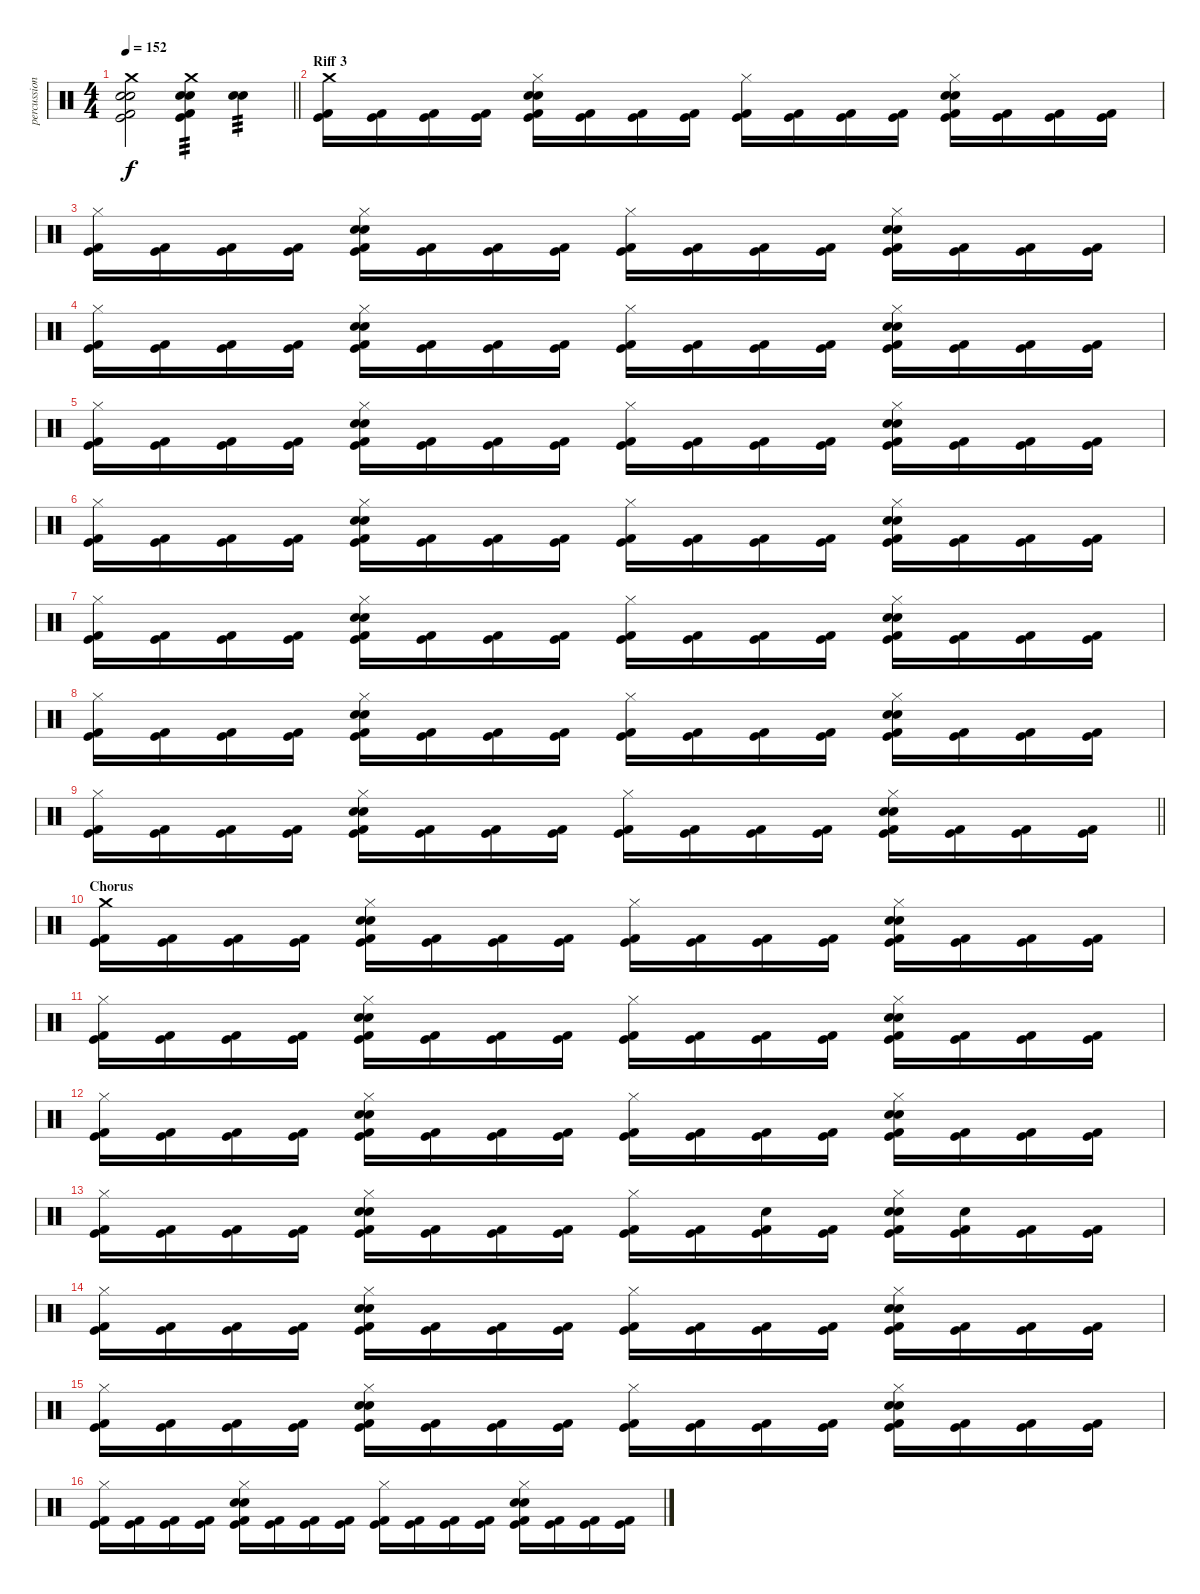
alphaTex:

\track ("percussion" "percussion") {instrument percussion}
\staff {score}
\articulation defaults
\ts (4 4)
\tempo 152
\clef neutral
\barLineRight lightlight
\ks c
("Crash medium (hit)" "Electric Snare (hit)" "Snare (hit) 2" "Kick (hit) 2" "Kick (hit)").2{dy f} ("Crash medium (hit)" "Electric Snare (hit)" "Snare (hit) 2" "Kick (hit)" "Kick (hit) 2").4{tp 3} ("Electric Snare (hit)" "Snare (hit) 2").4{tp 3} |
\section ("" "Riff 3")
("Crash medium (hit)" "Kick (hit) 2" "Kick (hit)").16 ("Kick (hit) 2" "Kick (hit)").16 ("Kick (hit) 2" "Kick (hit)").16 ("Kick (hit) 2" "Kick (hit)").16 ("Hi-Hat (closed)" "Electric Snare (hit)" "Snare (hit) 2" "Kick (hit) 2" "Kick (hit)").16 ("Kick (hit) 2" "Kick (hit)").16 ("Kick (hit) 2" "Kick (hit)").16 ("Kick (hit) 2" "Kick (hit)").16 ("Hi-Hat (closed)" "Kick (hit) 2" "Kick (hit)").16 ("Kick (hit) 2" "Kick (hit)").16 ("Kick (hit) 2" "Kick (hit)").16 ("Kick (hit) 2" "Kick (hit)").16 ("Hi-Hat (closed)" "Electric Snare (hit)" "Snare (hit) 2" "Kick (hit) 2" "Kick (hit)").16 ("Kick (hit) 2" "Kick (hit)").16 ("Kick (hit) 2" "Kick (hit)").16 ("Kick (hit) 2" "Kick (hit)").16 |
("Hi-Hat (closed)" "Kick (hit) 2" "Kick (hit)").16 ("Kick (hit) 2" "Kick (hit)").16 ("Kick (hit) 2" "Kick (hit)").16 ("Kick (hit) 2" "Kick (hit)").16 ("Hi-Hat (closed)" "Electric Snare (hit)" "Snare (hit) 2" "Kick (hit) 2" "Kick (hit)").16 ("Kick (hit) 2" "Kick (hit)").16 ("Kick (hit) 2" "Kick (hit)").16 ("Kick (hit) 2" "Kick (hit)").16 ("Hi-Hat (closed)" "Kick (hit) 2" "Kick (hit)").16 ("Kick (hit) 2" "Kick (hit)").16 ("Kick (hit) 2" "Kick (hit)").16 ("Kick (hit) 2" "Kick (hit)").16 ("Hi-Hat (closed)" "Electric Snare (hit)" "Snare (hit) 2" "Kick (hit) 2" "Kick (hit)").16 ("Kick (hit) 2" "Kick (hit)").16 ("Kick (hit) 2" "Kick (hit)").16 ("Kick (hit) 2" "Kick (hit)").16 |
("Hi-Hat (closed)" "Kick (hit) 2" "Kick (hit)").16 ("Kick (hit) 2" "Kick (hit)").16 ("Kick (hit) 2" "Kick (hit)").16 ("Kick (hit) 2" "Kick (hit)").16 ("Hi-Hat (closed)" "Electric Snare (hit)" "Snare (hit) 2" "Kick (hit) 2" "Kick (hit)").16 ("Kick (hit) 2" "Kick (hit)").16 ("Kick (hit) 2" "Kick (hit)").16 ("Kick (hit) 2" "Kick (hit)").16 ("Hi-Hat (closed)" "Kick (hit) 2" "Kick (hit)").16 ("Kick (hit) 2" "Kick (hit)").16 ("Kick (hit) 2" "Kick (hit)").16 ("Kick (hit) 2" "Kick (hit)").16 ("Hi-Hat (closed)" "Electric Snare (hit)" "Snare (hit) 2" "Kick (hit) 2" "Kick (hit)").16 ("Kick (hit) 2" "Kick (hit)").16 ("Kick (hit) 2" "Kick (hit)").16 ("Kick (hit) 2" "Kick (hit)").16 |
("Hi-Hat (closed)" "Kick (hit) 2" "Kick (hit)").16 ("Kick (hit) 2" "Kick (hit)").16 ("Kick (hit) 2" "Kick (hit)").16 ("Kick (hit) 2" "Kick (hit)").16 ("Hi-Hat (closed)" "Electric Snare (hit)" "Snare (hit) 2" "Kick (hit) 2" "Kick (hit)").16 ("Kick (hit) 2" "Kick (hit)").16 ("Kick (hit) 2" "Kick (hit)").16 ("Kick (hit) 2" "Kick (hit)").16 ("Hi-Hat (closed)" "Kick (hit) 2" "Kick (hit)").16 ("Kick (hit) 2" "Kick (hit)").16 ("Kick (hit) 2" "Kick (hit)").16 ("Kick (hit) 2" "Kick (hit)").16 ("Hi-Hat (closed)" "Electric Snare (hit)" "Snare (hit) 2" "Kick (hit) 2" "Kick (hit)").16 ("Kick (hit) 2" "Kick (hit)").16 ("Kick (hit) 2" "Kick (hit)").16 ("Kick (hit) 2" "Kick (hit)").16 |
("Hi-Hat (closed)" "Kick (hit) 2" "Kick (hit)").16 ("Kick (hit) 2" "Kick (hit)").16 ("Kick (hit) 2" "Kick (hit)").16 ("Kick (hit) 2" "Kick (hit)").16 ("Hi-Hat (closed)" "Electric Snare (hit)" "Snare (hit) 2" "Kick (hit) 2" "Kick (hit)").16 ("Kick (hit) 2" "Kick (hit)").16 ("Kick (hit) 2" "Kick (hit)").16 ("Kick (hit) 2" "Kick (hit)").16 ("Hi-Hat (closed)" "Kick (hit) 2" "Kick (hit)").16 ("Kick (hit) 2" "Kick (hit)").16 ("Kick (hit) 2" "Kick (hit)").16 ("Kick (hit) 2" "Kick (hit)").16 ("Hi-Hat (closed)" "Electric Snare (hit)" "Snare (hit) 2" "Kick (hit) 2" "Kick (hit)").16 ("Kick (hit) 2" "Kick (hit)").16 ("Kick (hit) 2" "Kick (hit)").16 ("Kick (hit) 2" "Kick (hit)").16 |
("Hi-Hat (closed)" "Kick (hit) 2" "Kick (hit)").16 ("Kick (hit) 2" "Kick (hit)").16 ("Kick (hit) 2" "Kick (hit)").16 ("Kick (hit) 2" "Kick (hit)").16 ("Hi-Hat (closed)" "Electric Snare (hit)" "Snare (hit) 2" "Kick (hit) 2" "Kick (hit)").16 ("Kick (hit) 2" "Kick (hit)").16 ("Kick (hit) 2" "Kick (hit)").16 ("Kick (hit) 2" "Kick (hit)").16 ("Hi-Hat (closed)" "Kick (hit) 2" "Kick (hit)").16 ("Kick (hit) 2" "Kick (hit)").16 ("Kick (hit) 2" "Kick (hit)").16 ("Kick (hit) 2" "Kick (hit)").16 ("Hi-Hat (closed)" "Electric Snare (hit)" "Snare (hit) 2" "Kick (hit) 2" "Kick (hit)").16 ("Kick (hit) 2" "Kick (hit)").16 ("Kick (hit) 2" "Kick (hit)").16 ("Kick (hit) 2" "Kick (hit)").16 |
("Hi-Hat (closed)" "Kick (hit) 2" "Kick (hit)").16 ("Kick (hit) 2" "Kick (hit)").16 ("Kick (hit) 2" "Kick (hit)").16 ("Kick (hit) 2" "Kick (hit)").16 ("Hi-Hat (closed)" "Electric Snare (hit)" "Snare (hit) 2" "Kick (hit) 2" "Kick (hit)").16 ("Kick (hit) 2" "Kick (hit)").16 ("Kick (hit) 2" "Kick (hit)").16 ("Kick (hit) 2" "Kick (hit)").16 ("Hi-Hat (closed)" "Kick (hit) 2" "Kick (hit)").16 ("Kick (hit) 2" "Kick (hit)").16 ("Kick (hit) 2" "Kick (hit)").16 ("Kick (hit) 2" "Kick (hit)").16 ("Hi-Hat (closed)" "Electric Snare (hit)" "Snare (hit) 2" "Kick (hit) 2" "Kick (hit)").16 ("Kick (hit) 2" "Kick (hit)").16 ("Kick (hit) 2" "Kick (hit)").16 ("Kick (hit) 2" "Kick (hit)").16 |
\barLineRight lightlight
("Hi-Hat (closed)" "Kick (hit) 2" "Kick (hit)").16 ("Kick (hit) 2" "Kick (hit)").16 ("Kick (hit) 2" "Kick (hit)").16 ("Kick (hit) 2" "Kick (hit)").16 ("Hi-Hat (closed)" "Electric Snare (hit)" "Snare (hit) 2" "Kick (hit) 2" "Kick (hit)").16 ("Kick (hit) 2" "Kick (hit)").16 ("Kick (hit) 2" "Kick (hit)").16 ("Kick (hit) 2" "Kick (hit)").16 ("Hi-Hat (closed)" "Kick (hit) 2" "Kick (hit)").16 ("Kick (hit) 2" "Kick (hit)").16 ("Kick (hit) 2" "Kick (hit)").16 ("Kick (hit) 2" "Kick (hit)").16 ("Hi-Hat (closed)" "Electric Snare (hit)" "Snare (hit) 2" "Kick (hit) 2" "Kick (hit)").16 ("Kick (hit) 2" "Kick (hit)").16 ("Kick (hit) 2" "Kick (hit)").16 ("Kick (hit) 2" "Kick (hit)").16 |
\section ("" "Chorus")
("Crash medium (hit)" "Kick (hit) 2" "Kick (hit)").16 ("Kick (hit) 2" "Kick (hit)").16 ("Kick (hit) 2" "Kick (hit)").16 ("Kick (hit) 2" "Kick (hit)").16 ("Hi-Hat (closed)" "Electric Snare (hit)" "Snare (hit) 2" "Kick (hit) 2" "Kick (hit)").16 ("Kick (hit) 2" "Kick (hit)").16 ("Kick (hit) 2" "Kick (hit)").16 ("Kick (hit) 2" "Kick (hit)").16 ("Hi-Hat (closed)" "Kick (hit) 2" "Kick (hit)").16 ("Kick (hit) 2" "Kick (hit)").16 ("Kick (hit) 2" "Kick (hit)").16 ("Kick (hit) 2" "Kick (hit)").16 ("Hi-Hat (closed)" "Electric Snare (hit)" "Snare (hit) 2" "Kick (hit) 2" "Kick (hit)").16 ("Kick (hit) 2" "Kick (hit)").16 ("Kick (hit) 2" "Kick (hit)").16 ("Kick (hit) 2" "Kick (hit)").16 |
("Hi-Hat (closed)" "Kick (hit) 2" "Kick (hit)").16 ("Kick (hit) 2" "Kick (hit)").16 ("Kick (hit) 2" "Kick (hit)").16 ("Kick (hit) 2" "Kick (hit)").16 ("Hi-Hat (closed)" "Electric Snare (hit)" "Snare (hit) 2" "Kick (hit) 2" "Kick (hit)").16 ("Kick (hit) 2" "Kick (hit)").16 ("Kick (hit) 2" "Kick (hit)").16 ("Kick (hit) 2" "Kick (hit)").16 ("Hi-Hat (closed)" "Kick (hit) 2" "Kick (hit)").16 ("Kick (hit) 2" "Kick (hit)").16 ("Kick (hit) 2" "Kick (hit)").16 ("Kick (hit) 2" "Kick (hit)").16 ("Hi-Hat (closed)" "Electric Snare (hit)" "Snare (hit) 2" "Kick (hit) 2" "Kick (hit)").16 ("Kick (hit) 2" "Kick (hit)").16 ("Kick (hit) 2" "Kick (hit)").16 ("Kick (hit) 2" "Kick (hit)").16 |
("Hi-Hat (closed)" "Kick (hit) 2" "Kick (hit)").16 ("Kick (hit) 2" "Kick (hit)").16 ("Kick (hit) 2" "Kick (hit)").16 ("Kick (hit) 2" "Kick (hit)").16 ("Hi-Hat (closed)" "Electric Snare (hit)" "Snare (hit) 2" "Kick (hit) 2" "Kick (hit)").16 ("Kick (hit) 2" "Kick (hit)").16 ("Kick (hit) 2" "Kick (hit)").16 ("Kick (hit) 2" "Kick (hit)").16 ("Hi-Hat (closed)" "Kick (hit) 2" "Kick (hit)").16 ("Kick (hit) 2" "Kick (hit)").16 ("Kick (hit) 2" "Kick (hit)").16 ("Kick (hit) 2" "Kick (hit)").16 ("Hi-Hat (closed)" "Electric Snare (hit)" "Snare (hit) 2" "Kick (hit) 2" "Kick (hit)").16 ("Kick (hit) 2" "Kick (hit)").16 ("Kick (hit) 2" "Kick (hit)").16 ("Kick (hit) 2" "Kick (hit)").16 |
("Hi-Hat (closed)" "Kick (hit) 2" "Kick (hit)").16 ("Kick (hit) 2" "Kick (hit)").16 ("Kick (hit) 2" "Kick (hit)").16 ("Kick (hit) 2" "Kick (hit)").16 ("Hi-Hat (closed)" "Electric Snare (hit)" "Snare (hit) 2" "Kick (hit) 2" "Kick (hit)").16 ("Kick (hit) 2" "Kick (hit)").16 ("Kick (hit) 2" "Kick (hit)").16 ("Kick (hit) 2" "Kick (hit)").16 ("Hi-Hat (closed)" "Kick (hit) 2" "Kick (hit)").16 ("Kick (hit) 2" "Kick (hit)").16 ("Electric Snare (hit)" "Kick (hit) 2" "Kick (hit)").16 ("Kick (hit) 2" "Kick (hit)").16 ("Hi-Hat (closed)" "Electric Snare (hit)" "Snare (hit) 2" "Kick (hit) 2" "Kick (hit)").16 ("Electric Snare (hit)" "Kick (hit) 2" "Kick (hit)").16 ("Kick (hit) 2" "Kick (hit)").16 ("Kick (hit) 2" "Kick (hit)").16 |
("Hi-Hat (closed)" "Kick (hit) 2" "Kick (hit)").16 ("Kick (hit) 2" "Kick (hit)").16 ("Kick (hit) 2" "Kick (hit)").16 ("Kick (hit) 2" "Kick (hit)").16 ("Hi-Hat (closed)" "Electric Snare (hit)" "Snare (hit) 2" "Kick (hit) 2" "Kick (hit)").16 ("Kick (hit) 2" "Kick (hit)").16 ("Kick (hit) 2" "Kick (hit)").16 ("Kick (hit) 2" "Kick (hit)").16 ("Hi-Hat (closed)" "Kick (hit) 2" "Kick (hit)").16 ("Kick (hit) 2" "Kick (hit)").16 ("Kick (hit) 2" "Kick (hit)").16 ("Kick (hit) 2" "Kick (hit)").16 ("Hi-Hat (closed)" "Electric Snare (hit)" "Snare (hit) 2" "Kick (hit) 2" "Kick (hit)").16 ("Kick (hit) 2" "Kick (hit)").16 ("Kick (hit) 2" "Kick (hit)").16 ("Kick (hit) 2" "Kick (hit)").16 |
("Hi-Hat (closed)" "Kick (hit) 2" "Kick (hit)").16 ("Kick (hit) 2" "Kick (hit)").16 ("Kick (hit) 2" "Kick (hit)").16 ("Kick (hit) 2" "Kick (hit)").16 ("Hi-Hat (closed)" "Electric Snare (hit)" "Snare (hit) 2" "Kick (hit) 2" "Kick (hit)").16 ("Kick (hit) 2" "Kick (hit)").16 ("Kick (hit) 2" "Kick (hit)").16 ("Kick (hit) 2" "Kick (hit)").16 ("Hi-Hat (closed)" "Kick (hit) 2" "Kick (hit)").16 ("Kick (hit) 2" "Kick (hit)").16 ("Kick (hit) 2" "Kick (hit)").16 ("Kick (hit) 2" "Kick (hit)").16 ("Hi-Hat (closed)" "Electric Snare (hit)" "Snare (hit) 2" "Kick (hit) 2" "Kick (hit)").16 ("Kick (hit) 2" "Kick (hit)").16 ("Kick (hit) 2" "Kick (hit)").16 ("Kick (hit) 2" "Kick (hit)").16 |
("Hi-Hat (closed)" "Kick (hit) 2" "Kick (hit)").16 ("Kick (hit) 2" "Kick (hit)").16 ("Kick (hit) 2" "Kick (hit)").16 ("Kick (hit) 2" "Kick (hit)").16 ("Hi-Hat (closed)" "Electric Snare (hit)" "Snare (hit) 2" "Kick (hit) 2" "Kick (hit)").16 ("Kick (hit) 2" "Kick (hit)").16 ("Kick (hit) 2" "Kick (hit)").16 ("Kick (hit) 2" "Kick (hit)").16 ("Hi-Hat (closed)" "Kick (hit) 2" "Kick (hit)").16 ("Kick (hit) 2" "Kick (hit)").16 ("Kick (hit) 2" "Kick (hit)").16 ("Kick (hit) 2" "Kick (hit)").16 ("Hi-Hat (closed)" "Electric Snare (hit)" "Snare (hit) 2" "Kick (hit) 2" "Kick (hit)").16 ("Kick (hit) 2" "Kick (hit)").16 ("Kick (hit) 2" "Kick (hit)").16 ("Kick (hit) 2" "Kick (hit)").16
